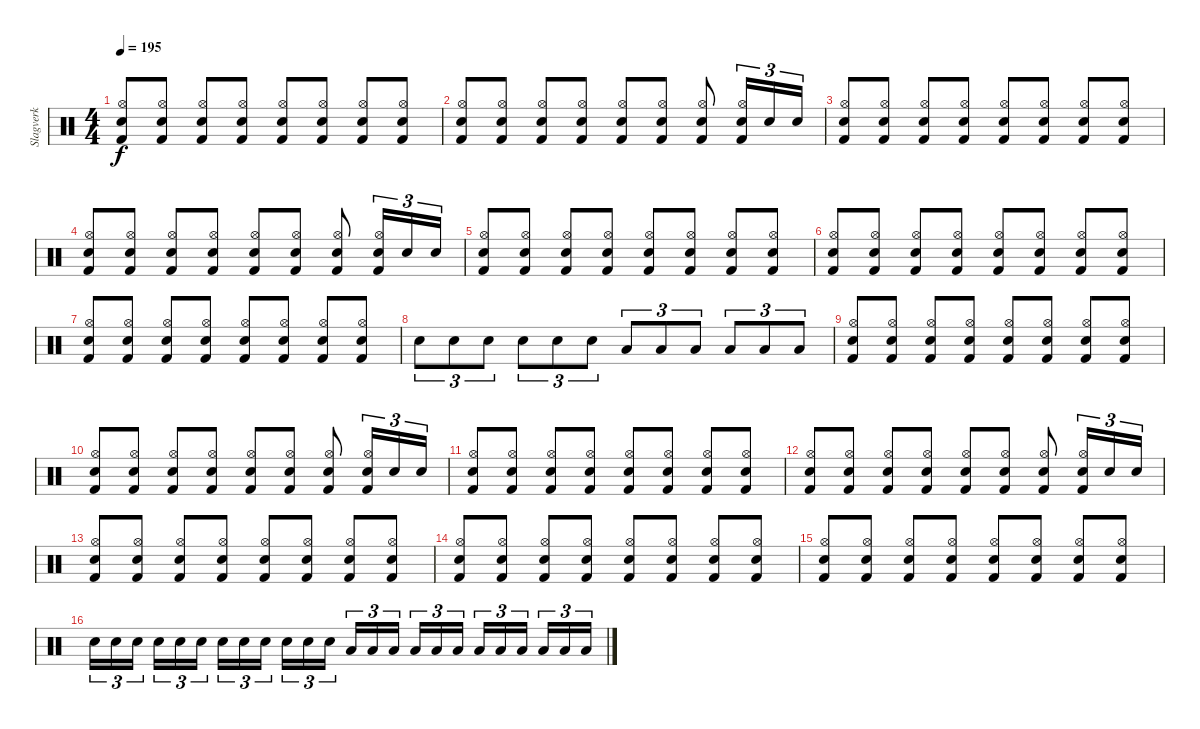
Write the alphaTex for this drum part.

\track ("Slagverk" "Slagverk") {instrument percussion}
\staff {score}
\articulation defaults
\ts (4 4)
\tempo 195
\clef neutral
\ks c
("Electric Snare (hit)" "Hi-Hat (open)" "Kick (hit) 2").8{dy f} ("Electric Snare (hit)" "Hi-Hat (open)" "Kick (hit) 2").8 ("Electric Snare (hit)" "Hi-Hat (open)" "Kick (hit) 2").8 ("Electric Snare (hit)" "Hi-Hat (open)" "Kick (hit) 2").8 ("Electric Snare (hit)" "Hi-Hat (open)" "Kick (hit) 2").8 ("Electric Snare (hit)" "Hi-Hat (open)" "Kick (hit) 2").8 ("Electric Snare (hit)" "Hi-Hat (open)" "Kick (hit) 2").8 ("Electric Snare (hit)" "Hi-Hat (open)" "Kick (hit) 2").8 |
("Electric Snare (hit)" "Hi-Hat (open)" "Kick (hit) 2").8 ("Electric Snare (hit)" "Hi-Hat (open)" "Kick (hit) 2").8 ("Electric Snare (hit)" "Hi-Hat (open)" "Kick (hit) 2").8 ("Electric Snare (hit)" "Hi-Hat (open)" "Kick (hit) 2").8 ("Electric Snare (hit)" "Hi-Hat (open)" "Kick (hit) 2").8 ("Electric Snare (hit)" "Hi-Hat (open)" "Kick (hit) 2").8 ("Electric Snare (hit)" "Hi-Hat (open)" "Kick (hit) 2").8 ("Electric Snare (hit)" "Hi-Hat (open)" "Kick (hit) 2").16{tu (3 2)} "Electric Snare (hit)".16{tu (3 2)} "Electric Snare (hit)".16{tu (3 2)} |
("Electric Snare (hit)" "Hi-Hat (open)" "Kick (hit) 2").8 ("Electric Snare (hit)" "Hi-Hat (open)" "Kick (hit) 2").8 ("Electric Snare (hit)" "Hi-Hat (open)" "Kick (hit) 2").8 ("Electric Snare (hit)" "Hi-Hat (open)" "Kick (hit) 2").8 ("Electric Snare (hit)" "Hi-Hat (open)" "Kick (hit) 2").8 ("Electric Snare (hit)" "Hi-Hat (open)" "Kick (hit) 2").8 ("Electric Snare (hit)" "Hi-Hat (open)" "Kick (hit) 2").8 ("Electric Snare (hit)" "Hi-Hat (open)" "Kick (hit) 2").8 |
("Electric Snare (hit)" "Hi-Hat (open)" "Kick (hit) 2").8 ("Electric Snare (hit)" "Hi-Hat (open)" "Kick (hit) 2").8 ("Electric Snare (hit)" "Hi-Hat (open)" "Kick (hit) 2").8 ("Electric Snare (hit)" "Hi-Hat (open)" "Kick (hit) 2").8 ("Electric Snare (hit)" "Hi-Hat (open)" "Kick (hit) 2").8 ("Electric Snare (hit)" "Hi-Hat (open)" "Kick (hit) 2").8 ("Electric Snare (hit)" "Hi-Hat (open)" "Kick (hit) 2").8 ("Electric Snare (hit)" "Hi-Hat (open)" "Kick (hit) 2").16{tu (3 2)} "Electric Snare (hit)".16{tu (3 2)} "Electric Snare (hit)".16{tu (3 2)} |
("Electric Snare (hit)" "Hi-Hat (open)" "Kick (hit) 2").8 ("Electric Snare (hit)" "Hi-Hat (open)" "Kick (hit) 2").8 ("Electric Snare (hit)" "Hi-Hat (open)" "Kick (hit) 2").8 ("Electric Snare (hit)" "Hi-Hat (open)" "Kick (hit) 2").8 ("Electric Snare (hit)" "Hi-Hat (open)" "Kick (hit) 2").8 ("Electric Snare (hit)" "Hi-Hat (open)" "Kick (hit) 2").8 ("Electric Snare (hit)" "Hi-Hat (open)" "Kick (hit) 2").8 ("Electric Snare (hit)" "Hi-Hat (open)" "Kick (hit) 2").8 |
("Electric Snare (hit)" "Hi-Hat (open)" "Kick (hit) 2").8 ("Electric Snare (hit)" "Hi-Hat (open)" "Kick (hit) 2").8 ("Electric Snare (hit)" "Hi-Hat (open)" "Kick (hit) 2").8 ("Electric Snare (hit)" "Hi-Hat (open)" "Kick (hit) 2").8 ("Electric Snare (hit)" "Hi-Hat (open)" "Kick (hit) 2").8 ("Electric Snare (hit)" "Hi-Hat (open)" "Kick (hit) 2").8 ("Electric Snare (hit)" "Hi-Hat (open)" "Kick (hit) 2").8 ("Electric Snare (hit)" "Hi-Hat (open)" "Kick (hit) 2").8 |
("Electric Snare (hit)" "Hi-Hat (open)" "Kick (hit) 2").8 ("Electric Snare (hit)" "Hi-Hat (open)" "Kick (hit) 2").8 ("Electric Snare (hit)" "Hi-Hat (open)" "Kick (hit) 2").8 ("Electric Snare (hit)" "Hi-Hat (open)" "Kick (hit) 2").8 ("Electric Snare (hit)" "Hi-Hat (open)" "Kick (hit) 2").8 ("Electric Snare (hit)" "Hi-Hat (open)" "Kick (hit) 2").8 ("Electric Snare (hit)" "Hi-Hat (open)" "Kick (hit) 2").8 ("Electric Snare (hit)" "Hi-Hat (open)" "Kick (hit) 2").8 |
"Electric Snare (hit)".8{tu (3 2)} "Electric Snare (hit)".8{tu (3 2)} "Electric Snare (hit)".8{tu (3 2)} "Electric Snare (hit)".8{tu (3 2)} "Electric Snare (hit)".8{tu (3 2)} "Electric Snare (hit)".8{tu (3 2)} "Low Tom (hit)".8{tu (3 2)} "Low Tom (hit)".8{tu (3 2)} "Low Tom (hit)".8{tu (3 2)} "Low Floor Tom (hit)".8{tu (3 2)} "Low Floor Tom (hit)".8{tu (3 2)} "Low Floor Tom (hit)".8{tu (3 2)} |
("Electric Snare (hit)" "Hi-Hat (open)" "Kick (hit) 2").8 ("Electric Snare (hit)" "Hi-Hat (open)" "Kick (hit) 2").8 ("Electric Snare (hit)" "Hi-Hat (open)" "Kick (hit) 2").8 ("Electric Snare (hit)" "Hi-Hat (open)" "Kick (hit) 2").8 ("Electric Snare (hit)" "Hi-Hat (open)" "Kick (hit) 2").8 ("Electric Snare (hit)" "Hi-Hat (open)" "Kick (hit) 2").8 ("Electric Snare (hit)" "Hi-Hat (open)" "Kick (hit) 2").8 ("Electric Snare (hit)" "Hi-Hat (open)" "Kick (hit) 2").8 |
("Electric Snare (hit)" "Hi-Hat (open)" "Kick (hit) 2").8 ("Electric Snare (hit)" "Hi-Hat (open)" "Kick (hit) 2").8 ("Electric Snare (hit)" "Hi-Hat (open)" "Kick (hit) 2").8 ("Electric Snare (hit)" "Hi-Hat (open)" "Kick (hit) 2").8 ("Electric Snare (hit)" "Hi-Hat (open)" "Kick (hit) 2").8 ("Electric Snare (hit)" "Hi-Hat (open)" "Kick (hit) 2").8 ("Electric Snare (hit)" "Hi-Hat (open)" "Kick (hit) 2").8 ("Electric Snare (hit)" "Hi-Hat (open)" "Kick (hit) 2").16{tu (3 2)} "Electric Snare (hit)".16{tu (3 2)} "Electric Snare (hit)".16{tu (3 2)} |
("Electric Snare (hit)" "Hi-Hat (open)" "Kick (hit) 2").8 ("Electric Snare (hit)" "Hi-Hat (open)" "Kick (hit) 2").8 ("Electric Snare (hit)" "Hi-Hat (open)" "Kick (hit) 2").8 ("Electric Snare (hit)" "Hi-Hat (open)" "Kick (hit) 2").8 ("Electric Snare (hit)" "Hi-Hat (open)" "Kick (hit) 2").8 ("Electric Snare (hit)" "Hi-Hat (open)" "Kick (hit) 2").8 ("Electric Snare (hit)" "Hi-Hat (open)" "Kick (hit) 2").8 ("Electric Snare (hit)" "Hi-Hat (open)" "Kick (hit) 2").8 |
("Electric Snare (hit)" "Hi-Hat (open)" "Kick (hit) 2").8 ("Electric Snare (hit)" "Hi-Hat (open)" "Kick (hit) 2").8 ("Electric Snare (hit)" "Hi-Hat (open)" "Kick (hit) 2").8 ("Electric Snare (hit)" "Hi-Hat (open)" "Kick (hit) 2").8 ("Electric Snare (hit)" "Hi-Hat (open)" "Kick (hit) 2").8 ("Electric Snare (hit)" "Hi-Hat (open)" "Kick (hit) 2").8 ("Electric Snare (hit)" "Hi-Hat (open)" "Kick (hit) 2").8 ("Electric Snare (hit)" "Hi-Hat (open)" "Kick (hit) 2").16{tu (3 2)} "Electric Snare (hit)".16{tu (3 2)} "Electric Snare (hit)".16{tu (3 2)} |
("Electric Snare (hit)" "Hi-Hat (open)" "Kick (hit) 2").8 ("Electric Snare (hit)" "Hi-Hat (open)" "Kick (hit) 2").8 ("Electric Snare (hit)" "Hi-Hat (open)" "Kick (hit) 2").8 ("Electric Snare (hit)" "Hi-Hat (open)" "Kick (hit) 2").8 ("Electric Snare (hit)" "Hi-Hat (open)" "Kick (hit) 2").8 ("Electric Snare (hit)" "Hi-Hat (open)" "Kick (hit) 2").8 ("Electric Snare (hit)" "Hi-Hat (open)" "Kick (hit) 2").8 ("Electric Snare (hit)" "Hi-Hat (open)" "Kick (hit) 2").8 |
("Electric Snare (hit)" "Hi-Hat (open)" "Kick (hit) 2").8 ("Electric Snare (hit)" "Hi-Hat (open)" "Kick (hit) 2").8 ("Electric Snare (hit)" "Hi-Hat (open)" "Kick (hit) 2").8 ("Electric Snare (hit)" "Hi-Hat (open)" "Kick (hit) 2").8 ("Electric Snare (hit)" "Hi-Hat (open)" "Kick (hit) 2").8 ("Electric Snare (hit)" "Hi-Hat (open)" "Kick (hit) 2").8 ("Electric Snare (hit)" "Hi-Hat (open)" "Kick (hit) 2").8 ("Electric Snare (hit)" "Hi-Hat (open)" "Kick (hit) 2").8 |
("Electric Snare (hit)" "Hi-Hat (open)" "Kick (hit) 2").8 ("Electric Snare (hit)" "Hi-Hat (open)" "Kick (hit) 2").8 ("Electric Snare (hit)" "Hi-Hat (open)" "Kick (hit) 2").8 ("Electric Snare (hit)" "Hi-Hat (open)" "Kick (hit) 2").8 ("Electric Snare (hit)" "Hi-Hat (open)" "Kick (hit) 2").8 ("Electric Snare (hit)" "Hi-Hat (open)" "Kick (hit) 2").8 ("Electric Snare (hit)" "Hi-Hat (open)" "Kick (hit) 2").8 ("Electric Snare (hit)" "Hi-Hat (open)" "Kick (hit) 2").8 |
"Electric Snare (hit)".16{tu (3 2)} "Electric Snare (hit)".16{tu (3 2)} "Electric Snare (hit)".16{tu (3 2)} "Electric Snare (hit)".16{tu (3 2)} "Electric Snare (hit)".16{tu (3 2)} "Electric Snare (hit)".16{tu (3 2)} "Snare (hit) 2".16{tu (3 2)} "Snare (hit) 2".16{tu (3 2)} "Snare (hit) 2".16{tu (3 2)} "Snare (hit) 2".16{tu (3 2)} "Snare (hit) 2".16{tu (3 2)} "Snare (hit) 2".16{tu (3 2)} "Low Tom (hit)".16{tu (3 2)} "Low Tom (hit)".16{tu (3 2)} "Low Tom (hit)".16{tu (3 2)} "Low Tom (hit)".16{tu (3 2)} "Low Tom (hit)".16{tu (3 2)} "Low Tom (hit)".16{tu (3 2)} "Low Floor Tom (hit)".16{tu (3 2)} "Low Floor Tom (hit)".16{tu (3 2)} "Low Floor Tom (hit)".16{tu (3 2)} "Low Floor Tom (hit)".16{tu (3 2)} "Low Floor Tom (hit)".16{tu (3 2)} "Low Floor Tom (hit)".16{tu (3 2)}
